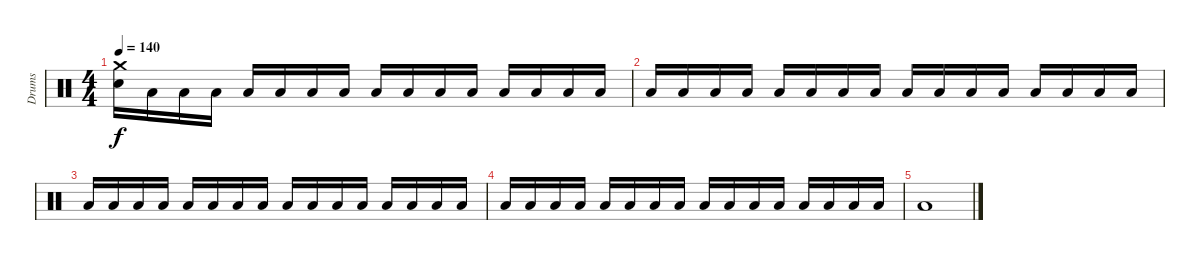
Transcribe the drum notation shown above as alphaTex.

\track ("Drums" "Drums") {instrument percussion}
\staff {score}
\articulation defaults
\ts (4 4)
\tempo 140
\clef neutral
\ks c
("Crash medium (hit)" "Snare (hit) 2").16{dy f} "Low Floor Tom (hit)".16 "Low Floor Tom (hit)".16 "Low Floor Tom (hit)".16 "Low Tom (hit)".16 "Low Floor Tom (hit)".16 "Low Floor Tom (hit)".16 "Low Floor Tom (hit)".16 "Low Tom (hit)".16 "Low Floor Tom (hit)".16 "Low Floor Tom (hit)".16 "Low Floor Tom (hit)".16 "Low Tom (hit)".16 "Low Floor Tom (hit)".16 "Low Floor Tom (hit)".16 "Low Floor Tom (hit)".16 |
"Low Tom (hit)".16 "Low Floor Tom (hit)".16 "Low Floor Tom (hit)".16 "Low Floor Tom (hit)".16 "Low Tom (hit)".16 "Low Floor Tom (hit)".16 "Low Floor Tom (hit)".16 "Low Floor Tom (hit)".16 "Low Tom (hit)".16 "Low Floor Tom (hit)".16 "Low Floor Tom (hit)".16 "Low Floor Tom (hit)".16 "Low Tom (hit)".16 "Low Floor Tom (hit)".16 "Low Floor Tom (hit)".16 "Low Floor Tom (hit)".16 |
"Low Tom (hit)".16 "Low Floor Tom (hit)".16 "Low Floor Tom (hit)".16 "Low Floor Tom (hit)".16 "Low Tom (hit)".16 "Low Floor Tom (hit)".16 "Low Floor Tom (hit)".16 "Low Floor Tom (hit)".16 "Low Tom (hit)".16 "Low Floor Tom (hit)".16 "Low Floor Tom (hit)".16 "Low Floor Tom (hit)".16 "Low Tom (hit)".16 "Low Floor Tom (hit)".16 "Low Floor Tom (hit)".16 "Low Floor Tom (hit)".16 |
"Low Tom (hit)".16 "Low Floor Tom (hit)".16 "Low Floor Tom (hit)".16 "Low Floor Tom (hit)".16 "Low Tom (hit)".16 "Low Floor Tom (hit)".16 "Low Floor Tom (hit)".16 "Low Floor Tom (hit)".16 "Low Tom (hit)".16 "Low Floor Tom (hit)".16 "Low Floor Tom (hit)".16 "Low Floor Tom (hit)".16 "Low Tom (hit)".16 "Low Floor Tom (hit)".16 "Low Floor Tom (hit)".16 "Low Floor Tom (hit)".16 |
"Low Tom (hit)".1
